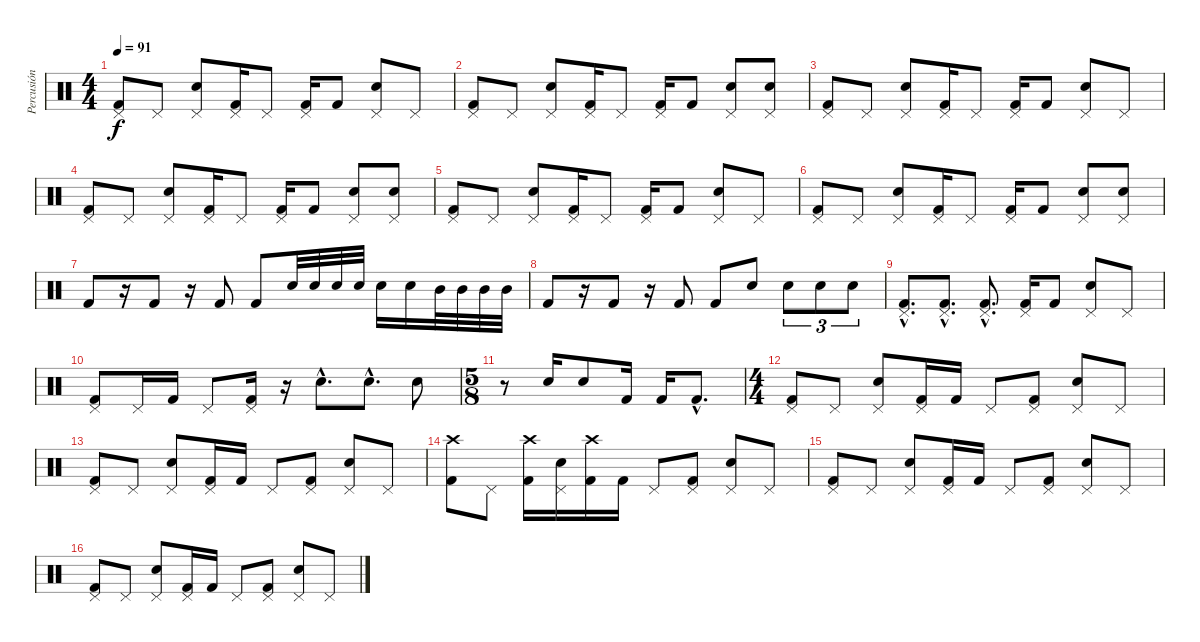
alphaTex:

\track ("Percusión" "Percusión") {instrument percussion}
\staff {score}
\articulation defaults
\ts (4 4)
\tempo 91
\clef neutral
\ks c
("Pedal Hi-Hat (hit)" "Kick (hit) 2").8{dy f} "Pedal Hi-Hat (hit)".8 ("Pedal Hi-Hat (hit)" "Electric Snare (hit)").8 ("Pedal Hi-Hat (hit)" "Kick (hit) 2").16 "Pedal Hi-Hat (hit)".8 ("Pedal Hi-Hat (hit)" "Kick (hit) 2").16 "Kick (hit) 2".8 ("Pedal Hi-Hat (hit)" "Electric Snare (hit)").8 "Pedal Hi-Hat (hit)".8 |
("Pedal Hi-Hat (hit)" "Kick (hit) 2").8 "Pedal Hi-Hat (hit)".8 ("Pedal Hi-Hat (hit)" "Electric Snare (hit)").8 ("Pedal Hi-Hat (hit)" "Kick (hit) 2").16 "Pedal Hi-Hat (hit)".8 ("Pedal Hi-Hat (hit)" "Kick (hit) 2").16 "Kick (hit) 2".8 ("Pedal Hi-Hat (hit)" "Electric Snare (hit)").8 ("Pedal Hi-Hat (hit)" "Electric Snare (hit)").8 |
("Pedal Hi-Hat (hit)" "Kick (hit) 2").8 "Pedal Hi-Hat (hit)".8 ("Pedal Hi-Hat (hit)" "Electric Snare (hit)").8 ("Pedal Hi-Hat (hit)" "Kick (hit) 2").16 "Pedal Hi-Hat (hit)".8 ("Pedal Hi-Hat (hit)" "Kick (hit) 2").16 "Kick (hit) 2".8 ("Pedal Hi-Hat (hit)" "Electric Snare (hit)").8 "Pedal Hi-Hat (hit)".8 |
("Pedal Hi-Hat (hit)" "Kick (hit) 2").8 "Pedal Hi-Hat (hit)".8 ("Pedal Hi-Hat (hit)" "Electric Snare (hit)").8 ("Pedal Hi-Hat (hit)" "Kick (hit) 2").16 "Pedal Hi-Hat (hit)".8 ("Pedal Hi-Hat (hit)" "Kick (hit) 2").16 "Kick (hit) 2".8 ("Pedal Hi-Hat (hit)" "Electric Snare (hit)").8 ("Pedal Hi-Hat (hit)" "Electric Snare (hit)").8 |
("Pedal Hi-Hat (hit)" "Kick (hit) 2").8 "Pedal Hi-Hat (hit)".8 ("Pedal Hi-Hat (hit)" "Electric Snare (hit)").8 ("Pedal Hi-Hat (hit)" "Kick (hit) 2").16 "Pedal Hi-Hat (hit)".8 ("Pedal Hi-Hat (hit)" "Kick (hit) 2").16 "Kick (hit) 2".8 ("Pedal Hi-Hat (hit)" "Electric Snare (hit)").8 "Pedal Hi-Hat (hit)".8 |
("Pedal Hi-Hat (hit)" "Kick (hit) 2").8 "Pedal Hi-Hat (hit)".8 ("Pedal Hi-Hat (hit)" "Electric Snare (hit)").8 ("Pedal Hi-Hat (hit)" "Kick (hit) 2").16 "Pedal Hi-Hat (hit)".8 ("Pedal Hi-Hat (hit)" "Kick (hit) 2").16 "Kick (hit) 2".8 ("Pedal Hi-Hat (hit)" "Electric Snare (hit)").8 ("Pedal Hi-Hat (hit)" "Electric Snare (hit)").8 |
"Kick (hit) 2".8 r.16 "Kick (hit) 2".8 r.16 "Kick (hit) 2".8 "Kick (hit) 2".8 "Electric Snare (hit)".32 "Electric Snare (hit)".32 "Electric Snare (hit)".32 "Electric Snare (hit)".32 "Electric Snare (hit)".16 "Electric Snare (hit)".16 "Mid Tom (hit)".32 "Mid Tom (hit)".32 "Mid Tom (hit)".32 "Mid Tom (hit)".32 |
"Kick (hit) 2".8 r.16 "Kick (hit) 2".8 r.16 "Kick (hit) 2".8 "Kick (hit) 2".8 "Electric Snare (hit)".8 "Electric Snare (hit)".8{tu (3 2)} "Electric Snare (hit)".8{tu (3 2)} "Electric Snare (hit)".8{tu (3 2)} |
("Pedal Hi-Hat (hit)"{hac} "Kick (hit) 2"{hac}).8{d} ("Pedal Hi-Hat (hit)"{hac} "Kick (hit) 2"{hac}).8{d} ("Pedal Hi-Hat (hit)"{hac} "Kick (hit) 2"{hac}).8{d} ("Pedal Hi-Hat (hit)" "Kick (hit) 2").16 "Kick (hit) 2".8 ("Pedal Hi-Hat (hit)" "Electric Snare (hit)").8 "Pedal Hi-Hat (hit)".8 |
("Pedal Hi-Hat (hit)" "Kick (hit) 2").8 "Pedal Hi-Hat (hit)".16 "Kick (hit) 2".16 "Pedal Hi-Hat (hit)".8 ("Pedal Hi-Hat (hit)" "Kick (hit) 2").16 r.16 "Electric Snare (hit)"{hac}.8{d} "Electric Snare (hit)"{hac}.8{d} "Electric Snare (hit)".8 |
\ts (5 8)
r.8 "Electric Snare (hit)".16 "Electric Snare (hit)".8 "Kick (hit) 2".16 "Kick (hit) 2".16 "Kick (hit) 2"{hac}.8{d} |
\ts (4 4)
("Pedal Hi-Hat (hit)" "Kick (hit) 2").8 "Pedal Hi-Hat (hit)".8 ("Pedal Hi-Hat (hit)" "Electric Snare (hit)").8 ("Pedal Hi-Hat (hit)" "Kick (hit) 2").16 "Kick (hit) 2".16 "Pedal Hi-Hat (hit)".8 ("Pedal Hi-Hat (hit)" "Kick (hit) 2").8 ("Pedal Hi-Hat (hit)" "Electric Snare (hit)").8 "Pedal Hi-Hat (hit)".8 |
("Pedal Hi-Hat (hit)" "Kick (hit) 2").8 "Pedal Hi-Hat (hit)".8 ("Pedal Hi-Hat (hit)" "Electric Snare (hit)").8 ("Pedal Hi-Hat (hit)" "Kick (hit) 2").16 "Kick (hit) 2".16 "Pedal Hi-Hat (hit)".8 ("Pedal Hi-Hat (hit)" "Kick (hit) 2").8 ("Pedal Hi-Hat (hit)" "Electric Snare (hit)").8 "Pedal Hi-Hat (hit)".8 |
("Crash high (hit)" "Kick (hit) 2").8 "Pedal Hi-Hat (hit)".8 ("Crash high (hit)" "Kick (hit) 2").16 ("Pedal Hi-Hat (hit)" "Electric Snare (hit)").16 ("Crash high (hit)" "Kick (hit) 2").16 "Kick (hit) 2".16 "Pedal Hi-Hat (hit)".8 ("Pedal Hi-Hat (hit)" "Kick (hit) 2").8 ("Pedal Hi-Hat (hit)" "Electric Snare (hit)").8 "Pedal Hi-Hat (hit)".8 |
("Pedal Hi-Hat (hit)" "Kick (hit) 2").8 "Pedal Hi-Hat (hit)".8 ("Pedal Hi-Hat (hit)" "Electric Snare (hit)").8 ("Pedal Hi-Hat (hit)" "Kick (hit) 2").16 "Kick (hit) 2".16 "Pedal Hi-Hat (hit)".8 ("Pedal Hi-Hat (hit)" "Kick (hit) 2").8 ("Pedal Hi-Hat (hit)" "Electric Snare (hit)").8 "Pedal Hi-Hat (hit)".8 |
("Pedal Hi-Hat (hit)" "Kick (hit) 2").8 "Pedal Hi-Hat (hit)".8 ("Pedal Hi-Hat (hit)" "Electric Snare (hit)").8 ("Pedal Hi-Hat (hit)" "Kick (hit) 2").16 "Kick (hit) 2".16 "Pedal Hi-Hat (hit)".8 ("Pedal Hi-Hat (hit)" "Kick (hit) 2").8 ("Pedal Hi-Hat (hit)" "Electric Snare (hit)").8 "Pedal Hi-Hat (hit)".8
